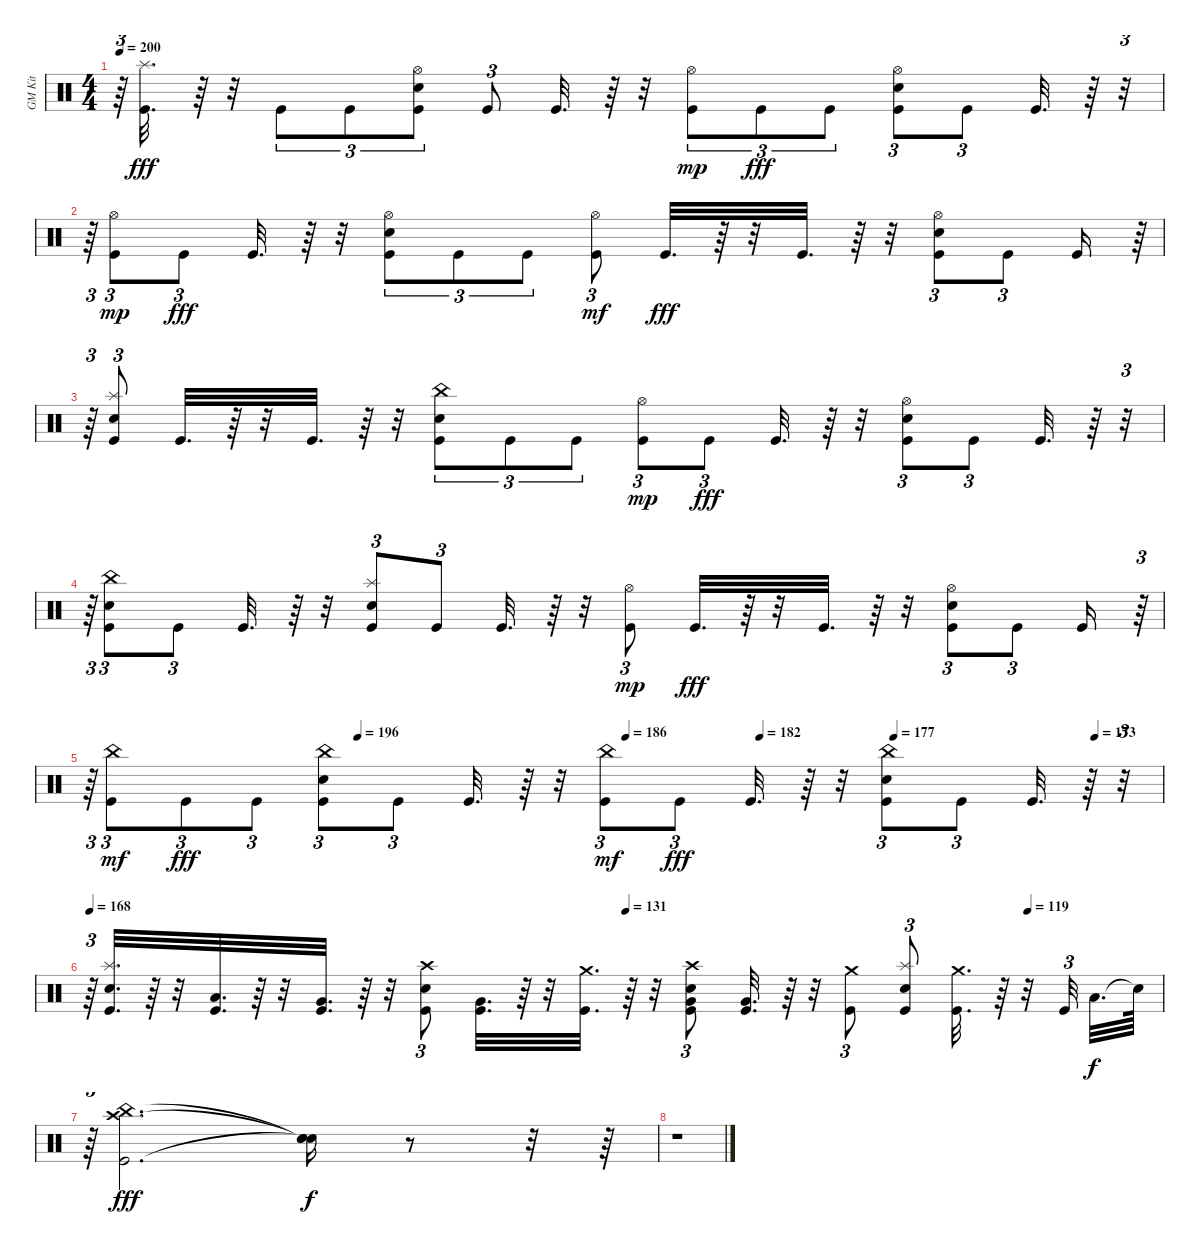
\track ("GM Kit" "GM Kit") {instrument percussion}
\staff {score}
\articulation defaults
\ts (4 4)
\tempo 200
\clef neutral
\ks c
r.64{tu (3 2) dy fff} ("Kick (hit)" "Splash (hit)").32{d} r.64 r.32 "Kick (hit)".8{tu (3 2)} "Kick (hit)".8{tu (3 2)} ("Kick (hit)" "Snare (hit) 2" "Hi-Hat (open)").8{tu (3 2)} "Kick (hit)".8{tu (3 2)} "Kick (hit)".32{d} r.64 r.32 ("Kick (hit)" "Hi-Hat (open)").8{tu (3 2) dy mp} "Kick (hit)".8{tu (3 2) dy fff} "Kick (hit)".8{tu (3 2)} ("Kick (hit)" "Snare (hit) 2" "Hi-Hat (open)").8{tu (3 2)} "Kick (hit)".8{tu (3 2)} "Kick (hit)".32{d} r.64 r.32{tu (3 2)} |
r.64{tu (3 2)} ("Kick (hit)" "Hi-Hat (open)").8{tu (3 2) dy mp} "Kick (hit)".8{tu (3 2) dy fff} "Kick (hit)".32{d} r.64 r.32 ("Kick (hit)" "Snare (hit) 2" "Hi-Hat (open)").8{tu (3 2)} "Kick (hit)".8{tu (3 2)} "Kick (hit)".8{tu (3 2)} ("Kick (hit)" "Hi-Hat (open)").8{tu (3 2) dy mf} "Kick (hit)".32{d dy fff} r.64 r.32 "Kick (hit)".32{d} r.64 r.32 ("Kick (hit)" "Snare (hit) 2" "Hi-Hat (open)").8{tu (3 2)} "Kick (hit)".8{tu (3 2)} "Kick (hit)".16 r.64{tu (3 2)} |
r.64{tu (3 2)} ("Kick (hit)" "Snare (hit) 2" "Splash (hit)").8{tu (3 2)} "Kick (hit)".32{d} r.64 r.32 "Kick (hit)".32{d} r.64 r.32 ("Kick (hit)" "Snare (hit) 2" "China (hit)").8{tu (3 2)} "Kick (hit)".8{tu (3 2)} "Kick (hit)".8{tu (3 2)} ("Kick (hit)" "Hi-Hat (open)").8{tu (3 2) dy mp} "Kick (hit)".8{tu (3 2) dy fff} "Kick (hit)".32{d} r.64 r.32 ("Kick (hit)" "Snare (hit) 2" "Hi-Hat (open)").8{tu (3 2)} "Kick (hit)".8{tu (3 2)} "Kick (hit)".32{d} r.64 r.32{tu (3 2)} |
r.64{tu (3 2)} ("Kick (hit)" "Snare (hit) 2" "China (hit)").8{tu (3 2)} "Kick (hit)".8{tu (3 2)} "Kick (hit)".32{d} r.64 r.32 ("Kick (hit)" "Snare (hit) 2" "Splash (hit)").8{tu (3 2)} "Kick (hit)".8{tu (3 2)} "Kick (hit)".32{d} r.64 r.32 ("Kick (hit)" "Hi-Hat (open)").8{tu (3 2) dy mp} "Kick (hit)".32{d dy fff} r.64 r.32 "Kick (hit)".32{d} r.64 r.32 ("Kick (hit)" "Snare (hit) 2" "Hi-Hat (open)").8{tu (3 2)} "Kick (hit)".8{tu (3 2)} "Kick (hit)".16 r.64{tu (3 2)} |
\tempo (196 0.25)
\tempo (186 0.5)
\tempo (182 0.625)
\tempo (177 0.75)
\tempo (173 0.9375)
r.64{tu (3 2)} ("Kick (hit)" "China (hit)").8{tu (3 2) dy mf} "Kick (hit)".8{tu (3 2) dy fff} "Kick (hit)".8{tu (3 2)} ("Kick (hit)" "Snare (hit) 2" "China (hit)").8{tu (3 2)} "Kick (hit)".8{tu (3 2)} "Kick (hit)".32{d} r.64 r.32 ("Kick (hit)" "China (hit)").8{tu (3 2) dy mf} "Kick (hit)".8{tu (3 2) dy fff} "Kick (hit)".32{d} r.64 r.32 ("Kick (hit)" "Snare (hit) 2" "China (hit)").8{tu (3 2)} "Kick (hit)".8{tu (3 2)} "Kick (hit)".32{d} r.64 r.32{tu (3 2)} |
\tempo 168
\tempo (131 0.5)
\tempo (119 0.875)
r.64{tu (3 2)} ("Kick (hit)" "Snare (hit) 2" "Splash (hit)").32{d} r.64 r.32 ("Kick (hit)" "Low Tom (hit)").32{d} r.64 r.32 ("Kick (hit)" "Very Low Tom (hit)").32{d} r.64 r.32 ("Kick (hit)" "Snare (hit) 2" "Crash high (hit)").8{tu (3 2)} ("Kick (hit)" "Very Low Tom (hit)").32{d} r.64 r.32 ("Kick (hit)" "Crash medium (hit)").32{d} r.64 r.32 ("Kick (hit)" "Snare (hit) 2" "Very Low Tom (hit)" "Crash high (hit)").8{tu (3 2)} ("Kick (hit)" "Very Low Tom (hit)").32{d} r.64 r.32 ("Kick (hit)" "Crash medium (hit)").8{tu (3 2)} ("Kick (hit)" "Snare (hit) 2" "Splash (hit)").8{tu (3 2)} ("Kick (hit)" "Crash medium (hit)").32{d} r.64 r.32 "Kick (hit)".32{tu (3 2) beam splitsecondary} "Low Floor Tom (hit)".32{d dy f} "Snare (hit)"{t}.64 |
r.64{tu (3 2)} ("Kick (hit)" "Crash high (hit)" "China (hit)").2{d dy fff} ("Snare (hit)"{t} "Snare (hit)"{t} "Snare (hit)"{t}).16{dy f} r.8 r.32 r.64 |
r.1
